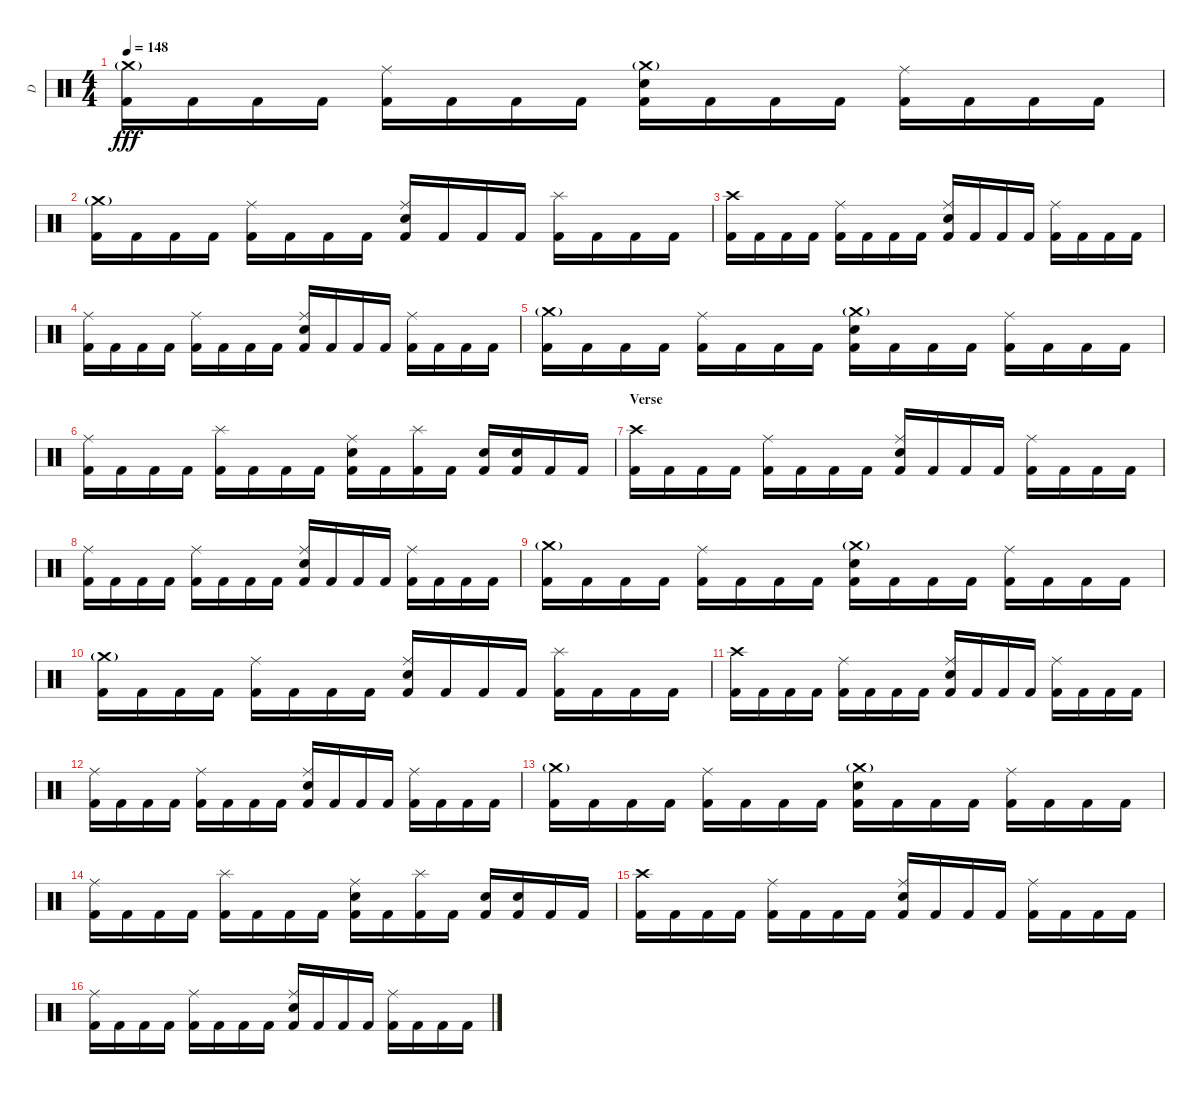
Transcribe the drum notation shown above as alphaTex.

\track ("D" "D") {instrument percussion}
\staff {score}
\articulation defaults
\ts (4 4)
\tempo 148
\clef neutral
\ks c
("Crash medium (hit)"{g} "Kick (hit) 2").16{dy fff} "Kick (hit) 2".16 "Kick (hit) 2".16 "Kick (hit) 2".16 ("Ride (middle)" "Kick (hit) 2").16 "Kick (hit) 2".16 "Kick (hit) 2".16 "Kick (hit) 2".16 ("Crash medium (hit)"{g} "Electric Snare (hit)" "Kick (hit) 2").16 "Kick (hit) 2".16 "Kick (hit) 2".16 "Kick (hit) 2".16 ("Ride (middle)" "Kick (hit) 2").16 "Kick (hit) 2".16 "Kick (hit) 2".16 "Kick (hit) 2".16 |
("Crash medium (hit)"{g} "Kick (hit) 2").16 "Kick (hit) 2".16 "Kick (hit) 2".16 "Kick (hit) 2".16 ("Ride (middle)" "Kick (hit) 2").16 "Kick (hit) 2".16 "Kick (hit) 2".16 "Kick (hit) 2".16 ("Ride (middle)" "Electric Snare (hit)" "Kick (hit) 2").16 "Kick (hit) 2".16 "Kick (hit) 2".16 "Kick (hit) 2".16 ("Splash (hit)" "Kick (hit) 2").16 "Kick (hit) 2".16 "Kick (hit) 2".16 "Kick (hit) 2".16 |
("Crash high (hit)" "Kick (hit) 2").16 "Kick (hit) 2".16 "Kick (hit) 2".16 "Kick (hit) 2".16 ("Ride (middle)" "Kick (hit) 2").16 "Kick (hit) 2".16 "Kick (hit) 2".16 "Kick (hit) 2".16 ("Ride (middle)" "Electric Snare (hit)" "Kick (hit) 2").16 "Kick (hit) 2".16 "Kick (hit) 2".16 "Kick (hit) 2".16 ("Ride (middle)" "Kick (hit) 2").16 "Kick (hit) 2".16 "Kick (hit) 2".16 "Kick (hit) 2".16 |
("Ride (middle)" "Kick (hit) 2").16 "Kick (hit) 2".16 "Kick (hit) 2".16 "Kick (hit) 2".16 ("Ride (middle)" "Kick (hit) 2").16 "Kick (hit) 2".16 "Kick (hit) 2".16 "Kick (hit) 2".16 ("Ride (middle)" "Electric Snare (hit)" "Kick (hit) 2").16 "Kick (hit) 2".16 "Kick (hit) 2".16 "Kick (hit) 2".16 ("Ride (middle)" "Kick (hit) 2").16 "Kick (hit) 2".16 "Kick (hit) 2".16 "Kick (hit) 2".16 |
("Crash medium (hit)"{g} "Kick (hit) 2").16 "Kick (hit) 2".16 "Kick (hit) 2".16 "Kick (hit) 2".16 ("Ride (middle)" "Kick (hit) 2").16 "Kick (hit) 2".16 "Kick (hit) 2".16 "Kick (hit) 2".16 ("Crash medium (hit)"{g} "Electric Snare (hit)" "Kick (hit) 2").16 "Kick (hit) 2".16 "Kick (hit) 2".16 "Kick (hit) 2".16 ("Ride (middle)" "Kick (hit) 2").16 "Kick (hit) 2".16 "Kick (hit) 2".16 "Kick (hit) 2".16 |
("Ride (middle)" "Kick (hit) 2").16 "Kick (hit) 2".16 "Kick (hit) 2".16 "Kick (hit) 2".16 ("Splash (hit)" "Kick (hit) 2").16 "Kick (hit) 2".16 "Kick (hit) 2".16 "Kick (hit) 2".16 ("Ride (middle)" "Electric Snare (hit)" "Kick (hit) 2").16 "Kick (hit) 2".16 ("Splash (hit)" "Kick (hit) 2").16 "Kick (hit) 2".16 ("Electric Snare (hit)" "Kick (hit) 2").16 ("Electric Snare (hit)" "Kick (hit) 2").16 "Kick (hit) 2".16 "Kick (hit) 2".16 |
\section ("" "Verse")
("Crash high (hit)" "Kick (hit) 2").16 "Kick (hit) 2".16 "Kick (hit) 2".16 "Kick (hit) 2".16 ("Ride (middle)" "Kick (hit) 2").16 "Kick (hit) 2".16 "Kick (hit) 2".16 "Kick (hit) 2".16 ("Ride (middle)" "Electric Snare (hit)" "Kick (hit) 2").16 "Kick (hit) 2".16 "Kick (hit) 2".16 "Kick (hit) 2".16 ("Ride (middle)" "Kick (hit) 2").16 "Kick (hit) 2".16 "Kick (hit) 2".16 "Kick (hit) 2".16 |
("Ride (middle)" "Kick (hit) 2").16 "Kick (hit) 2".16 "Kick (hit) 2".16 "Kick (hit) 2".16 ("Ride (middle)" "Kick (hit) 2").16 "Kick (hit) 2".16 "Kick (hit) 2".16 "Kick (hit) 2".16 ("Ride (middle)" "Electric Snare (hit)" "Kick (hit) 2").16 "Kick (hit) 2".16 "Kick (hit) 2".16 "Kick (hit) 2".16 ("Ride (middle)" "Kick (hit) 2").16 "Kick (hit) 2".16 "Kick (hit) 2".16 "Kick (hit) 2".16 |
("Crash medium (hit)"{g} "Kick (hit) 2").16 "Kick (hit) 2".16 "Kick (hit) 2".16 "Kick (hit) 2".16 ("Ride (middle)" "Kick (hit) 2").16 "Kick (hit) 2".16 "Kick (hit) 2".16 "Kick (hit) 2".16 ("Crash medium (hit)"{g} "Electric Snare (hit)" "Kick (hit) 2").16 "Kick (hit) 2".16 "Kick (hit) 2".16 "Kick (hit) 2".16 ("Ride (middle)" "Kick (hit) 2").16 "Kick (hit) 2".16 "Kick (hit) 2".16 "Kick (hit) 2".16 |
("Crash medium (hit)"{g} "Kick (hit) 2").16 "Kick (hit) 2".16 "Kick (hit) 2".16 "Kick (hit) 2".16 ("Ride (middle)" "Kick (hit) 2").16 "Kick (hit) 2".16 "Kick (hit) 2".16 "Kick (hit) 2".16 ("Ride (middle)" "Electric Snare (hit)" "Kick (hit) 2").16 "Kick (hit) 2".16 "Kick (hit) 2".16 "Kick (hit) 2".16 ("Splash (hit)" "Kick (hit) 2").16 "Kick (hit) 2".16 "Kick (hit) 2".16 "Kick (hit) 2".16 |
("Crash high (hit)" "Kick (hit) 2").16 "Kick (hit) 2".16 "Kick (hit) 2".16 "Kick (hit) 2".16 ("Ride (middle)" "Kick (hit) 2").16 "Kick (hit) 2".16 "Kick (hit) 2".16 "Kick (hit) 2".16 ("Ride (middle)" "Electric Snare (hit)" "Kick (hit) 2").16 "Kick (hit) 2".16 "Kick (hit) 2".16 "Kick (hit) 2".16 ("Ride (middle)" "Kick (hit) 2").16 "Kick (hit) 2".16 "Kick (hit) 2".16 "Kick (hit) 2".16 |
("Ride (middle)" "Kick (hit) 2").16 "Kick (hit) 2".16 "Kick (hit) 2".16 "Kick (hit) 2".16 ("Ride (middle)" "Kick (hit) 2").16 "Kick (hit) 2".16 "Kick (hit) 2".16 "Kick (hit) 2".16 ("Ride (middle)" "Electric Snare (hit)" "Kick (hit) 2").16 "Kick (hit) 2".16 "Kick (hit) 2".16 "Kick (hit) 2".16 ("Ride (middle)" "Kick (hit) 2").16 "Kick (hit) 2".16 "Kick (hit) 2".16 "Kick (hit) 2".16 |
("Crash medium (hit)"{g} "Kick (hit) 2").16 "Kick (hit) 2".16 "Kick (hit) 2".16 "Kick (hit) 2".16 ("Ride (middle)" "Kick (hit) 2").16 "Kick (hit) 2".16 "Kick (hit) 2".16 "Kick (hit) 2".16 ("Crash medium (hit)"{g} "Electric Snare (hit)" "Kick (hit) 2").16 "Kick (hit) 2".16 "Kick (hit) 2".16 "Kick (hit) 2".16 ("Ride (middle)" "Kick (hit) 2").16 "Kick (hit) 2".16 "Kick (hit) 2".16 "Kick (hit) 2".16 |
("Ride (middle)" "Kick (hit) 2").16 "Kick (hit) 2".16 "Kick (hit) 2".16 "Kick (hit) 2".16 ("Splash (hit)" "Kick (hit) 2").16 "Kick (hit) 2".16 "Kick (hit) 2".16 "Kick (hit) 2".16 ("Ride (middle)" "Electric Snare (hit)" "Kick (hit) 2").16 "Kick (hit) 2".16 ("Splash (hit)" "Kick (hit) 2").16 "Kick (hit) 2".16 ("Electric Snare (hit)" "Kick (hit) 2").16 ("Electric Snare (hit)" "Kick (hit) 2").16 "Kick (hit) 2".16 "Kick (hit) 2".16 |
("Crash high (hit)" "Kick (hit) 2").16 "Kick (hit) 2".16 "Kick (hit) 2".16 "Kick (hit) 2".16 ("Ride (middle)" "Kick (hit) 2").16 "Kick (hit) 2".16 "Kick (hit) 2".16 "Kick (hit) 2".16 ("Ride (middle)" "Electric Snare (hit)" "Kick (hit) 2").16 "Kick (hit) 2".16 "Kick (hit) 2".16 "Kick (hit) 2".16 ("Ride (middle)" "Kick (hit) 2").16 "Kick (hit) 2".16 "Kick (hit) 2".16 "Kick (hit) 2".16 |
("Ride (middle)" "Kick (hit) 2").16 "Kick (hit) 2".16 "Kick (hit) 2".16 "Kick (hit) 2".16 ("Ride (middle)" "Kick (hit) 2").16 "Kick (hit) 2".16 "Kick (hit) 2".16 "Kick (hit) 2".16 ("Ride (middle)" "Electric Snare (hit)" "Kick (hit) 2").16 "Kick (hit) 2".16 "Kick (hit) 2".16 "Kick (hit) 2".16 ("Ride (middle)" "Kick (hit) 2").16 "Kick (hit) 2".16 "Kick (hit) 2".16 "Kick (hit) 2".16
